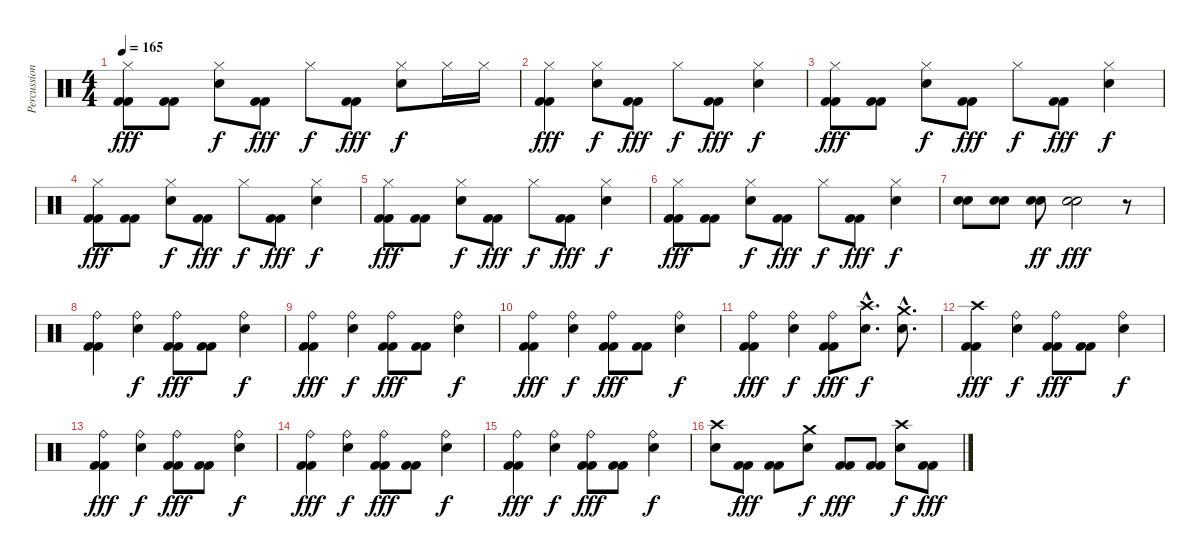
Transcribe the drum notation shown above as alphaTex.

\track ("Percussions" "Percussion") {instrument percussion}
\staff {score}
\articulation defaults
\ts (4 4)
\tempo 165
\clef neutral
\ks c
("Hi-Hat (closed)" "Kick (hit) 2" "Kick (hit) 2").8{dy fff} ("Kick (hit) 2" "Kick (hit) 2").8 ("Hi-Hat (closed)" "Electric Snare (hit)").8{dy f} ("Kick (hit) 2" "Kick (hit) 2").8{dy fff} "Hi-Hat (closed)".8{dy f} ("Kick (hit) 2" "Kick (hit) 2").8{dy fff} ("Hi-Hat (closed)" "Electric Snare (hit)").8{dy f} "Hi-Hat (closed)".16 "Hi-Hat (closed)".16 |
("Hi-Hat (closed)" "Kick (hit) 2" "Kick (hit) 2").4{dy fff} ("Hi-Hat (closed)" "Electric Snare (hit)").8{dy f} ("Kick (hit) 2" "Kick (hit) 2").8{dy fff} "Hi-Hat (closed)".8{dy f} ("Kick (hit) 2" "Kick (hit) 2").8{dy fff} ("Hi-Hat (closed)" "Electric Snare (hit)").4{dy f} |
("Hi-Hat (closed)" "Kick (hit) 2" "Kick (hit) 2").8{dy fff} ("Kick (hit) 2" "Kick (hit) 2").8 ("Hi-Hat (closed)" "Electric Snare (hit)").8{dy f} ("Kick (hit) 2" "Kick (hit) 2").8{dy fff} "Hi-Hat (closed)".8{dy f} ("Kick (hit) 2" "Kick (hit) 2").8{dy fff} ("Hi-Hat (closed)" "Electric Snare (hit)").4{dy f} |
("Hi-Hat (closed)" "Kick (hit) 2" "Kick (hit) 2").8{dy fff} ("Kick (hit) 2" "Kick (hit) 2").8 ("Hi-Hat (closed)" "Electric Snare (hit)").8{dy f} ("Kick (hit) 2" "Kick (hit) 2").8{dy fff} "Hi-Hat (closed)".8{dy f} ("Kick (hit) 2" "Kick (hit) 2").8{dy fff} ("Hi-Hat (closed)" "Electric Snare (hit)").4{dy f} |
("Hi-Hat (closed)" "Kick (hit) 2" "Kick (hit) 2").8{dy fff} ("Kick (hit) 2" "Kick (hit) 2").8 ("Hi-Hat (closed)" "Electric Snare (hit)").8{dy f} ("Kick (hit) 2" "Kick (hit) 2").8{dy fff} "Hi-Hat (closed)".8{dy f} ("Kick (hit) 2" "Kick (hit) 2").8{dy fff} ("Hi-Hat (closed)" "Electric Snare (hit)").4{dy f} |
("Hi-Hat (closed)" "Kick (hit) 2" "Kick (hit) 2").8{dy fff} ("Kick (hit) 2" "Kick (hit) 2").8 ("Hi-Hat (closed)" "Electric Snare (hit)").8{dy f} ("Kick (hit) 2" "Kick (hit) 2").8{dy fff} "Hi-Hat (closed)".8{dy f} ("Kick (hit) 2" "Kick (hit) 2").8{dy fff} ("Hi-Hat (closed)" "Electric Snare (hit)").4{dy f} |
("Electric Snare (hit)" "Electric Snare (hit)").8 ("Electric Snare (hit)" "Electric Snare (hit)").8 ("Electric Snare (hit)" "Electric Snare (hit)").8{dy ff} ("Electric Snare (hit)" "Electric Snare (hit)").2{dy fff} r.8 |
("Ride (bell)" "Kick (hit) 2" "Kick (hit) 2").4{volume 16} ("Ride (bell)" "Electric Snare (hit)").4{dy f} ("Ride (bell)" "Kick (hit) 2" "Kick (hit) 2").8{dy fff} ("Kick (hit) 2" "Kick (hit) 2").8 ("Ride (bell)" "Electric Snare (hit)").4{dy f} |
("Ride (bell)" "Kick (hit) 2" "Kick (hit) 2").4{dy fff} ("Ride (bell)" "Electric Snare (hit)").4{dy f} ("Ride (bell)" "Kick (hit) 2" "Kick (hit) 2").8{dy fff} ("Kick (hit) 2" "Kick (hit) 2").8 ("Ride (bell)" "Electric Snare (hit)").4{dy f} |
("Ride (bell)" "Kick (hit) 2" "Kick (hit) 2").4{dy fff} ("Ride (bell)" "Electric Snare (hit)").4{dy f} ("Ride (bell)" "Kick (hit) 2" "Kick (hit) 2").8{dy fff} ("Kick (hit) 2" "Kick (hit) 2").8 ("Ride (bell)" "Electric Snare (hit)").4{dy f} |
("Ride (bell)" "Kick (hit) 2" "Kick (hit) 2").4{dy fff} ("Ride (bell)" "Electric Snare (hit)").4{dy f} ("Ride (bell)" "Kick (hit) 2" "Kick (hit) 2").8{dy fff} ("Crash high (hit)"{hac} "Electric Snare (hit)"{hac}).8{d dy f} ("Crash medium (hit)"{hac} "Electric Snare (hit)"{hac}).8{d} |
("Crash high (hit)" "Kick (hit) 2" "Kick (hit) 2").4{dy fff volume 16} ("Ride (bell)" "Electric Snare (hit)").4{dy f} ("Ride (bell)" "Kick (hit) 2" "Kick (hit) 2").8{dy fff} ("Kick (hit) 2" "Kick (hit) 2").8 ("Ride (bell)" "Electric Snare (hit)").4{dy f} |
("Ride (bell)" "Kick (hit) 2" "Kick (hit) 2").4{dy fff volume 16} ("Ride (bell)" "Electric Snare (hit)").4{dy f} ("Ride (bell)" "Kick (hit) 2" "Kick (hit) 2").8{dy fff} ("Kick (hit) 2" "Kick (hit) 2").8 ("Ride (bell)" "Electric Snare (hit)").4{dy f} |
("Ride (bell)" "Kick (hit) 2" "Kick (hit) 2").4{dy fff} ("Ride (bell)" "Electric Snare (hit)").4{dy f} ("Ride (bell)" "Kick (hit) 2" "Kick (hit) 2").8{dy fff} ("Kick (hit) 2" "Kick (hit) 2").8 ("Ride (bell)" "Electric Snare (hit)").4{dy f} |
("Ride (bell)" "Kick (hit) 2" "Kick (hit) 2").4{dy fff} ("Ride (bell)" "Electric Snare (hit)").4{dy f} ("Ride (bell)" "Kick (hit) 2" "Kick (hit) 2").8{dy fff} ("Kick (hit) 2" "Kick (hit) 2").8 ("Ride (bell)" "Electric Snare (hit)").4{dy f} |
("Crash high (hit)" "Electric Snare (hit)").8 ("Kick (hit) 2" "Kick (hit) 2").8{dy fff} ("Kick (hit) 2" "Kick (hit) 2").8 ("Crash medium (hit)" "Electric Snare (hit)").8{dy f} ("Kick (hit) 2" "Kick (hit) 2").8{dy fff} ("Kick (hit) 2" "Kick (hit) 2").8 ("Crash high (hit)" "Electric Snare (hit)").8{dy f} ("Kick (hit) 2" "Kick (hit) 2").8{dy fff}
